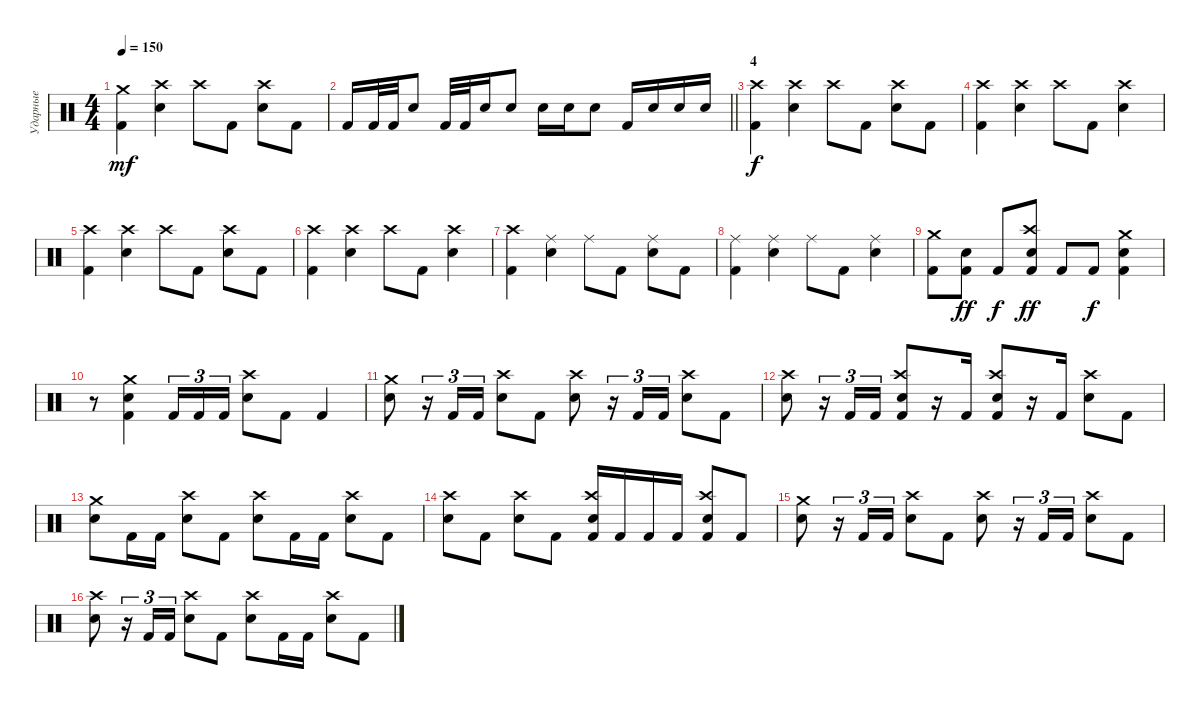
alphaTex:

\track ("Ударные" "Ударные") {instrument percussion}
\staff {score}
\articulation defaults
\ts (4 4)
\tempo 150
\clef neutral
\ks c
("Crash medium (hit)" "Kick (hit) 2").4{dy mf} ("Crash high (hit)" "Electric Snare (hit)").4 "Crash high (hit)".8 "Kick (hit) 2".8 ("Crash high (hit)" "Electric Snare (hit)").8 "Kick (hit) 2".8 |
\barLineRight lightlight "Kick (hit) 2".16 "Kick (hit) 2".32 "Kick (hit) 2".32 "Electric Snare (hit)".8 "Kick (hit) 2".32 "Kick (hit) 2".32 "Electric Snare (hit)".16 "Electric Snare (hit)".8 "Electric Snare (hit)".16 "Electric Snare (hit)".16 "Electric Snare (hit)".8 "Kick (hit) 2".16 "Electric Snare (hit)".16 "Electric Snare (hit)".16 "Electric Snare (hit)".16
|
\section ("" "4")
("Crash high (hit)" "Kick (hit) 2").4{dy f} ("Crash high (hit)" "Electric Snare (hit)").4 "Crash high (hit)".8 "Kick (hit) 2".8 ("Crash high (hit)" "Electric Snare (hit)").8 "Kick (hit) 2".8 |
("Crash high (hit)" "Kick (hit) 2").4 ("Crash high (hit)" "Electric Snare (hit)").4 "Crash high (hit)".8 "Kick (hit) 2".8 ("Crash high (hit)" "Electric Snare (hit)").4 |
("Crash high (hit)" "Kick (hit) 2").4 ("Crash high (hit)" "Electric Snare (hit)").4 "Crash high (hit)".8 "Kick (hit) 2".8 ("Crash high (hit)" "Electric Snare (hit)").8 "Kick (hit) 2".8 |
("Crash high (hit)" "Kick (hit) 2").4 ("Crash high (hit)" "Electric Snare (hit)").4 "Crash high (hit)".8 "Kick (hit) 2".8 ("Crash high (hit)" "Electric Snare (hit)").4 |
("Crash high (hit)" "Kick (hit) 2").4 ("Ride (middle)" "Electric Snare (hit)").4 "Ride (middle)".8 "Kick (hit) 2".8 ("Ride (middle)" "Electric Snare (hit)").8 "Kick (hit) 2".8 |
("Ride (middle)" "Kick (hit) 2").4 ("Ride (middle)" "Electric Snare (hit)").4 "Ride (middle)".8 "Kick (hit) 2".8 ("Ride (middle)" "Electric Snare (hit)").4 |
("Crash medium (hit)" "Kick (hit) 2").8 ("Electric Snare (hit)" "Kick (hit) 2").8{dy ff} "Kick (hit) 2".8{dy f} ("Crash high (hit)" "Snare (hit) 2" "Kick (hit) 2").8{dy ff} "Kick (hit) 2".8 "Kick (hit) 2".8{dy f} ("Crash medium (hit)" "Electric Snare (hit)" "Kick (hit) 2").4 |
r.8 ("Crash medium (hit)" "Electric Snare (hit)" "Kick (hit) 2").4 "Kick (hit) 2".16{tu (3 2)} "Kick (hit) 2".16{tu (3 2)} "Kick (hit) 2".16{tu (3 2)} ("Crash high (hit)" "Electric Snare (hit)").8 "Kick (hit) 2".8 "Kick (hit) 2".4 |
("Crash medium (hit)" "Electric Snare (hit)").8 r.16{tu (3 2)} "Kick (hit) 2".16{tu (3 2)} "Kick (hit) 2".16{tu (3 2)} ("Crash high (hit)" "Snare (hit) 2").8 "Kick (hit) 2".8 ("Crash high (hit)" "Snare (hit) 2").8 r.16{tu (3 2)} "Kick (hit) 2".16{tu (3 2)} "Kick (hit) 2".16{tu (3 2)} ("Crash high (hit)" "Snare (hit) 2").8 "Kick (hit) 2".8 |
("Crash high (hit)" "Snare (hit) 2").8 r.16{tu (3 2)} "Kick (hit) 2".16{tu (3 2)} "Kick (hit) 2".16{tu (3 2)} ("Crash high (hit)" "Snare (hit) 2" "Kick (hit) 2").8 r.16 "Kick (hit) 2".16 ("Crash high (hit)" "Snare (hit) 2" "Kick (hit) 2").8 r.16 "Kick (hit) 2".16 ("Crash high (hit)" "Snare (hit) 2").8 "Kick (hit) 2".8 |
("Crash medium (hit)" "Electric Snare (hit)").8 "Kick (hit) 2".16 "Kick (hit) 2".16 ("Crash high (hit)" "Snare (hit) 2").8 "Kick (hit) 2".8 ("Crash high (hit)" "Snare (hit) 2").8 "Kick (hit) 2".16 "Kick (hit) 2".16 ("Crash high (hit)" "Snare (hit) 2").8 "Kick (hit) 2".8 |
("Crash high (hit)" "Snare (hit) 2").8 "Kick (hit) 2".8 ("Crash high (hit)" "Snare (hit) 2").8 "Kick (hit) 2".8 ("Crash high (hit)" "Snare (hit) 2" "Kick (hit) 2").16 "Kick (hit) 2".16 "Kick (hit) 2".16 "Kick (hit) 2".16 ("Crash high (hit)" "Snare (hit) 2" "Kick (hit) 2").8 "Kick (hit) 2".8 |
("Crash medium (hit)" "Electric Snare (hit)").8 r.16{tu (3 2)} "Kick (hit) 2".16{tu (3 2)} "Kick (hit) 2".16{tu (3 2)} ("Crash high (hit)" "Snare (hit) 2").8 "Kick (hit) 2".8 ("Crash high (hit)" "Snare (hit) 2").8 r.16{tu (3 2)} "Kick (hit) 2".16{tu (3 2)} "Kick (hit) 2".16{tu (3 2)} ("Crash high (hit)" "Snare (hit) 2").8 "Kick (hit) 2".8 |
("Crash high (hit)" "Snare (hit) 2").8 r.16{tu (3 2)} "Kick (hit) 2".16{tu (3 2)} "Kick (hit) 2".16{tu (3 2)} ("Crash high (hit)" "Snare (hit) 2").8 "Kick (hit) 2".8 ("Crash high (hit)" "Snare (hit) 2").8 "Kick (hit) 2".16 "Kick (hit) 2".16 ("Crash high (hit)" "Snare (hit) 2").8 "Kick (hit) 2".8
